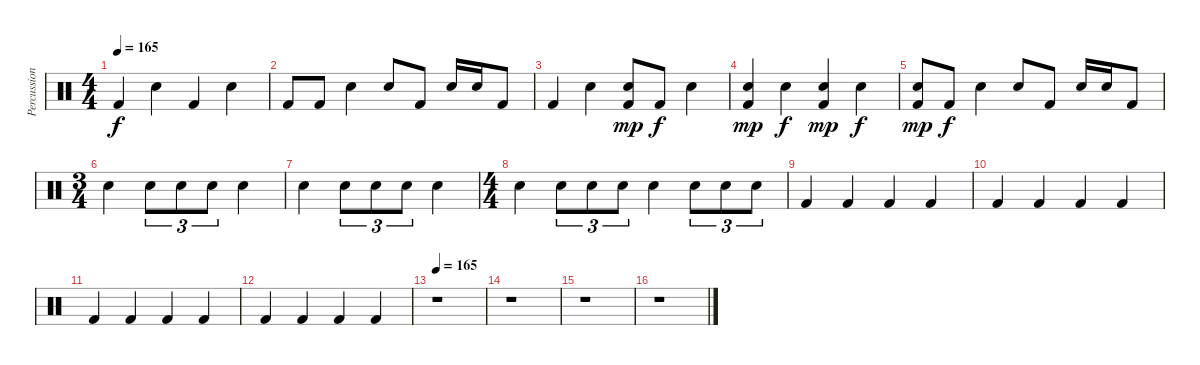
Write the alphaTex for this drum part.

\track ("Percussion" "Percussion") {instrument percussion}
\staff {score}
\articulation defaults
\ts (4 4)
\tempo 165
\clef neutral
\ks c "Kick (hit) 2".4{dy f} "Snare (hit) 2".4 "Kick (hit) 2".4 "Snare (hit) 2".4
|
"Kick (hit) 2".8 "Kick (hit) 2".8 "Snare (hit) 2".4 "Snare (hit) 2".8 "Kick (hit) 2".8 "Snare (hit) 2".16 "Snare (hit) 2".16 "Kick (hit) 2".8 |
"Kick (hit) 2".4 "Snare (hit) 2".4 ("Snare (hit) 2" "Kick (hit) 2").8{dy mp} "Kick (hit) 2".8{dy f} "Snare (hit) 2".4 |
("Snare (hit) 2" "Kick (hit) 2").4{dy mp} "Snare (hit) 2".4{dy f} ("Snare (hit) 2" "Kick (hit) 2").4{dy mp} "Snare (hit) 2".4{dy f} |
("Kick (hit) 2" "Snare (hit) 2").8{dy mp} "Kick (hit) 2".8{dy f} "Snare (hit) 2".4 "Snare (hit) 2".8 "Kick (hit) 2".8 "Snare (hit) 2".16 "Snare (hit) 2".16 "Kick (hit) 2".8 |
\ts (3 4)
"Snare (hit) 2".4 "Snare (hit) 2".8{tu (3 2)} "Snare (hit) 2".8{tu (3 2)} "Snare (hit) 2".8{tu (3 2)} "Snare (hit) 2".4 |
"Snare (hit) 2".4 "Snare (hit) 2".8{tu (3 2)} "Snare (hit) 2".8{tu (3 2)} "Snare (hit) 2".8{tu (3 2)} "Snare (hit) 2".4 |
\ts (4 4)
"Snare (hit) 2".4 "Snare (hit) 2".8{tu (3 2)} "Snare (hit) 2".8{tu (3 2)} "Snare (hit) 2".8{tu (3 2)} "Snare (hit) 2".4 "Snare (hit) 2".8{tu (3 2)} "Snare (hit) 2".8{tu (3 2)} "Snare (hit) 2".8{tu (3 2)} |
"Kick (hit) 2".4 "Kick (hit) 2".4 "Kick (hit) 2".4 "Kick (hit) 2".4 |
"Kick (hit) 2".4 "Kick (hit) 2".4 "Kick (hit) 2".4 "Kick (hit) 2".4 |
"Kick (hit) 2".4 "Kick (hit) 2".4 "Kick (hit) 2".4 "Kick (hit) 2".4 |
"Kick (hit) 2".4 "Kick (hit) 2".4 "Kick (hit) 2".4 "Kick (hit) 2".4 |
\tempo 165
r.1 |
r.1 |
r.1 |
r.1
